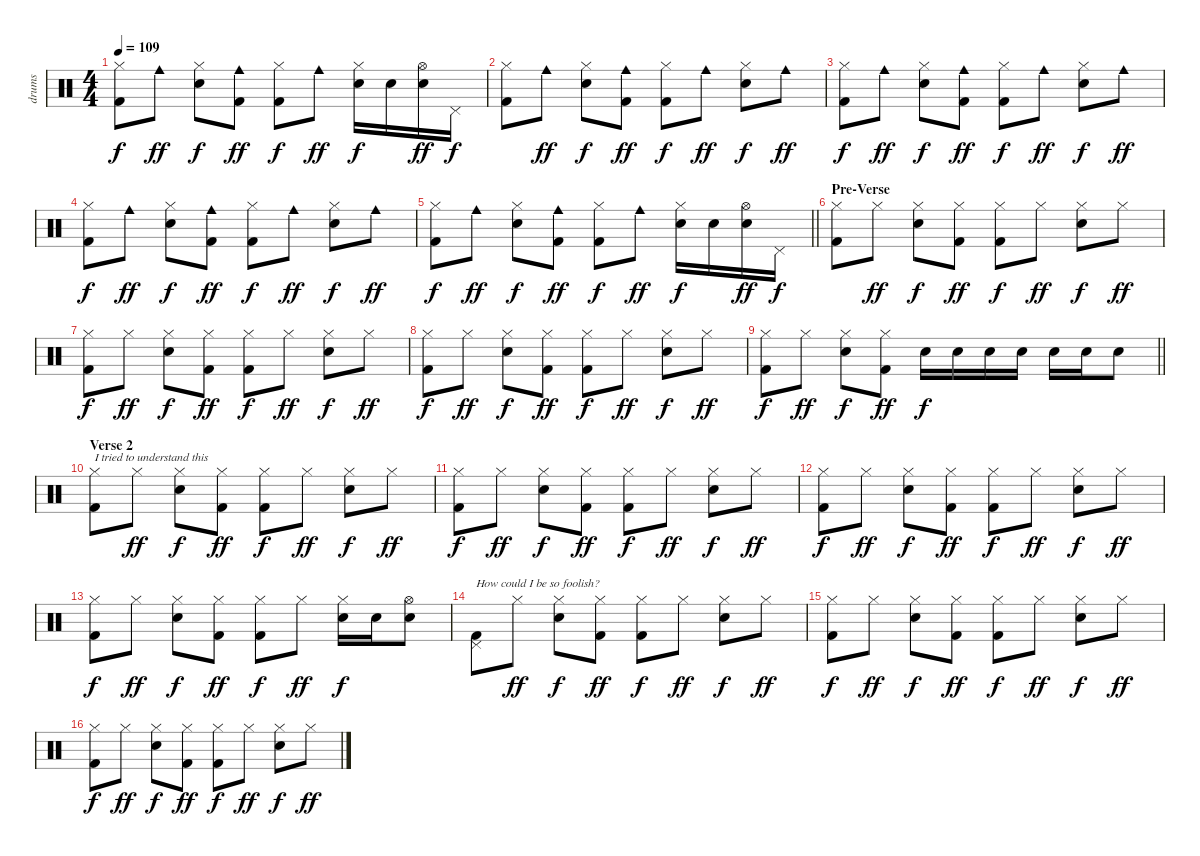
\track ("drums" "drums") {instrument percussion}
\staff {score}
\articulation defaults
\ts (4 4)
\tempo 109
\clef neutral
\ks aminor
("Hi-Hat (closed)" "Kick (hit) 2").8{dy f} "Cowbell medium (hit)".8{dy ff} ("Hi-Hat (closed)" "Snare (hit) 2").8{dy f} ("Cowbell medium (hit)" "Kick (hit) 2").8{dy ff} ("Hi-Hat (closed)" "Kick (hit) 2").8{dy f} "Cowbell medium (hit)".8{dy ff} ("Hi-Hat (closed)" "Snare (hit) 2").16{dy f} "Snare (hit) 2".16 ("Hi-Hat (open)" "Snare (hit) 2").16{dy ff} "Pedal Hi-Hat (hit)".16{dy f} |
("Hi-Hat (closed)" "Kick (hit) 2").8 "Cowbell medium (hit)".8{dy ff} ("Hi-Hat (closed)" "Snare (hit) 2").8{dy f} ("Cowbell medium (hit)" "Kick (hit) 2").8{dy ff} ("Hi-Hat (closed)" "Kick (hit) 2").8{dy f} "Cowbell medium (hit)".8{dy ff} ("Hi-Hat (closed)" "Snare (hit) 2").8{dy f} "Cowbell medium (hit)".8{dy ff} |
("Hi-Hat (closed)" "Kick (hit) 2").8{dy f} "Cowbell medium (hit)".8{dy ff} ("Hi-Hat (closed)" "Snare (hit) 2").8{dy f} ("Cowbell medium (hit)" "Kick (hit) 2").8{dy ff} ("Hi-Hat (closed)" "Kick (hit) 2").8{dy f} "Cowbell medium (hit)".8{dy ff} ("Hi-Hat (closed)" "Snare (hit) 2").8{dy f} "Cowbell medium (hit)".8{dy ff} |
("Hi-Hat (closed)" "Kick (hit) 2").8{dy f} "Cowbell medium (hit)".8{dy ff} ("Hi-Hat (closed)" "Snare (hit) 2").8{dy f} ("Cowbell medium (hit)" "Kick (hit) 2").8{dy ff} ("Hi-Hat (closed)" "Kick (hit) 2").8{dy f} "Cowbell medium (hit)".8{dy ff} ("Hi-Hat (closed)" "Snare (hit) 2").8{dy f} "Cowbell medium (hit)".8{dy ff} |
\barLineRight lightlight
("Hi-Hat (closed)" "Kick (hit) 2").8{dy f} "Cowbell medium (hit)".8{dy ff} ("Hi-Hat (closed)" "Snare (hit) 2").8{dy f} ("Cowbell medium (hit)" "Kick (hit) 2").8{dy ff} ("Hi-Hat (closed)" "Kick (hit) 2").8{dy f} "Cowbell medium (hit)".8{dy ff} ("Hi-Hat (closed)" "Snare (hit) 2").16{dy f} "Snare (hit) 2".16 ("Hi-Hat (open)" "Snare (hit) 2").16{dy ff} "Pedal Hi-Hat (hit)".16{dy f} |
\section ("" "Pre-Verse")
("Hi-Hat (closed)" "Kick (hit) 2").8 "Hi-Hat (closed)".8{dy ff} ("Hi-Hat (closed)" "Snare (hit) 2").8{dy f} ("Hi-Hat (closed)" "Kick (hit) 2").8{dy ff} ("Hi-Hat (closed)" "Kick (hit) 2").8{dy f} "Hi-Hat (closed)".8{dy ff} ("Hi-Hat (closed)" "Snare (hit) 2").8{dy f} "Hi-Hat (closed)".8{dy ff} |
("Hi-Hat (closed)" "Kick (hit) 2").8{dy f} "Hi-Hat (closed)".8{dy ff} ("Hi-Hat (closed)" "Snare (hit) 2").8{dy f} ("Hi-Hat (closed)" "Kick (hit) 2").8{dy ff} ("Hi-Hat (closed)" "Kick (hit) 2").8{dy f} "Hi-Hat (closed)".8{dy ff} ("Hi-Hat (closed)" "Snare (hit) 2").8{dy f} "Hi-Hat (closed)".8{dy ff} |
("Hi-Hat (closed)" "Kick (hit) 2").8{dy f} "Hi-Hat (closed)".8{dy ff} ("Hi-Hat (closed)" "Snare (hit) 2").8{dy f} ("Hi-Hat (closed)" "Kick (hit) 2").8{dy ff} ("Hi-Hat (closed)" "Kick (hit) 2").8{dy f} "Hi-Hat (closed)".8{dy ff} ("Hi-Hat (closed)" "Snare (hit) 2").8{dy f} "Hi-Hat (closed)".8{dy ff} |
\barLineRight lightlight
("Hi-Hat (closed)" "Kick (hit) 2").8{dy f} "Hi-Hat (closed)".8{dy ff} ("Hi-Hat (closed)" "Snare (hit) 2").8{dy f} ("Hi-Hat (closed)" "Kick (hit) 2").8{dy ff} "Snare (hit) 2".16{dy f} "Snare (hit) 2".16 "Snare (hit) 2".16 "Snare (hit) 2".16 "Snare (hit) 2".16 "Snare (hit) 2".16 "Snare (hit) 2".8 |
\section ("" "Verse 2")
("Hi-Hat (closed)" "Kick (hit) 2").8{txt "I tried to understand this"} "Hi-Hat (closed)".8{dy ff} ("Hi-Hat (closed)" "Snare (hit) 2").8{dy f} ("Hi-Hat (closed)" "Kick (hit) 2").8{dy ff} ("Hi-Hat (closed)" "Kick (hit) 2").8{dy f} "Hi-Hat (closed)".8{dy ff} ("Hi-Hat (closed)" "Snare (hit) 2").8{dy f} "Hi-Hat (closed)".8{dy ff} |
("Hi-Hat (closed)" "Kick (hit) 2").8{dy f} "Hi-Hat (closed)".8{dy ff} ("Hi-Hat (closed)" "Snare (hit) 2").8{dy f} ("Hi-Hat (closed)" "Kick (hit) 2").8{dy ff} ("Hi-Hat (closed)" "Kick (hit) 2").8{dy f} "Hi-Hat (closed)".8{dy ff} ("Hi-Hat (closed)" "Snare (hit) 2").8{dy f} "Hi-Hat (closed)".8{dy ff} |
("Hi-Hat (closed)" "Kick (hit) 2").8{dy f} "Hi-Hat (closed)".8{dy ff} ("Hi-Hat (closed)" "Snare (hit) 2").8{dy f} ("Hi-Hat (closed)" "Kick (hit) 2").8{dy ff} ("Hi-Hat (closed)" "Kick (hit) 2").8{dy f} "Hi-Hat (closed)".8{dy ff} ("Hi-Hat (closed)" "Snare (hit) 2").8{dy f} "Hi-Hat (closed)".8{dy ff} |
("Hi-Hat (closed)" "Kick (hit) 2").8{dy f} "Hi-Hat (closed)".8{dy ff} ("Hi-Hat (closed)" "Snare (hit) 2").8{dy f} ("Hi-Hat (closed)" "Kick (hit) 2").8{dy ff} ("Hi-Hat (closed)" "Kick (hit) 2").8{dy f} "Hi-Hat (closed)".8{dy ff} ("Hi-Hat (closed)" "Snare (hit) 2").16{dy f} "Snare (hit) 2".16 ("Hi-Hat (open)" "Snare (hit) 2").8 |
("Pedal Hi-Hat (hit)" "Kick (hit) 2").8{txt "How could I be so foolish?"} "Hi-Hat (closed)".8{dy ff} ("Hi-Hat (closed)" "Snare (hit) 2").8{dy f} ("Hi-Hat (closed)" "Kick (hit) 2").8{dy ff} ("Hi-Hat (closed)" "Kick (hit) 2").8{dy f} "Hi-Hat (closed)".8{dy ff} ("Hi-Hat (closed)" "Snare (hit) 2").8{dy f} "Hi-Hat (closed)".8{dy ff} |
("Hi-Hat (closed)" "Kick (hit) 2").8{dy f} "Hi-Hat (closed)".8{dy ff} ("Hi-Hat (closed)" "Snare (hit) 2").8{dy f} ("Hi-Hat (closed)" "Kick (hit) 2").8{dy ff} ("Hi-Hat (closed)" "Kick (hit) 2").8{dy f} "Hi-Hat (closed)".8{dy ff} ("Hi-Hat (closed)" "Snare (hit) 2").8{dy f} "Hi-Hat (closed)".8{dy ff} |
("Hi-Hat (closed)" "Kick (hit) 2").8{dy f} "Hi-Hat (closed)".8{dy ff} ("Hi-Hat (closed)" "Snare (hit) 2").8{dy f} ("Hi-Hat (closed)" "Kick (hit) 2").8{dy ff} ("Hi-Hat (closed)" "Kick (hit) 2").8{dy f} "Hi-Hat (closed)".8{dy ff} ("Hi-Hat (closed)" "Snare (hit) 2").8{dy f} "Hi-Hat (closed)".8{dy ff}
